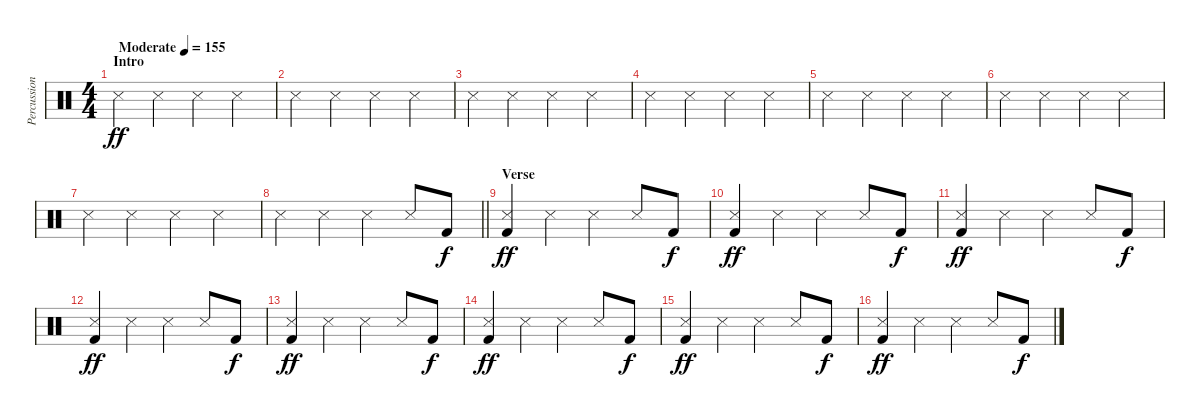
\track ("Percussion" "Percussion") {instrument percussion}
\staff {score}
\articulation defaults
\ts (4 4)
\section ("" "Intro")
\tempo (155 "Moderate")
\clef neutral
\ks c "Snare (side stick) 3".4{dy ff} "Snare (side stick) 3".4 "Snare (side stick) 3".4 "Snare (side stick) 3".4
|
"Snare (side stick) 3".4 "Snare (side stick) 3".4 "Snare (side stick) 3".4 "Snare (side stick) 3".4 |
"Snare (side stick) 3".4 "Snare (side stick) 3".4 "Snare (side stick) 3".4 "Snare (side stick) 3".4 |
"Snare (side stick) 3".4 "Snare (side stick) 3".4 "Snare (side stick) 3".4 "Snare (side stick) 3".4 |
"Snare (side stick) 3".4 "Snare (side stick) 3".4 "Snare (side stick) 3".4 "Snare (side stick) 3".4 |
"Snare (side stick) 3".4 "Snare (side stick) 3".4 "Snare (side stick) 3".4 "Snare (side stick) 3".4 |
"Snare (side stick) 3".4 "Snare (side stick) 3".4 "Snare (side stick) 3".4 "Snare (side stick) 3".4 |
\barLineRight lightlight "Snare (side stick) 3".4 "Snare (side stick) 3".4 "Snare (side stick) 3".4 "Snare (side stick) 3".8 "Kick (hit) 2".8{dy f}
|
\section ("" "Verse")
("Snare (side stick) 3" "Kick (hit) 2").4{dy ff} "Snare (side stick) 3".4 "Snare (side stick) 3".4 "Snare (side stick) 3".8 "Kick (hit) 2".8{dy f} |
("Snare (side stick) 3" "Kick (hit) 2").4{dy ff} "Snare (side stick) 3".4 "Snare (side stick) 3".4 "Snare (side stick) 3".8 "Kick (hit) 2".8{dy f} |
("Snare (side stick) 3" "Kick (hit) 2").4{dy ff} "Snare (side stick) 3".4 "Snare (side stick) 3".4 "Snare (side stick) 3".8 "Kick (hit) 2".8{dy f} |
("Snare (side stick) 3" "Kick (hit) 2").4{dy ff} "Snare (side stick) 3".4 "Snare (side stick) 3".4 "Snare (side stick) 3".8 "Kick (hit) 2".8{dy f} |
("Snare (side stick) 3" "Kick (hit) 2").4{dy ff} "Snare (side stick) 3".4 "Snare (side stick) 3".4 "Snare (side stick) 3".8 "Kick (hit) 2".8{dy f} |
("Snare (side stick) 3" "Kick (hit) 2").4{dy ff} "Snare (side stick) 3".4 "Snare (side stick) 3".4 "Snare (side stick) 3".8 "Kick (hit) 2".8{dy f} |
("Snare (side stick) 3" "Kick (hit) 2").4{dy ff} "Snare (side stick) 3".4 "Snare (side stick) 3".4 "Snare (side stick) 3".8 "Kick (hit) 2".8{dy f} |
("Snare (side stick) 3" "Kick (hit) 2").4{dy ff} "Snare (side stick) 3".4 "Snare (side stick) 3".4 "Snare (side stick) 3".8 "Kick (hit) 2".8{dy f}
